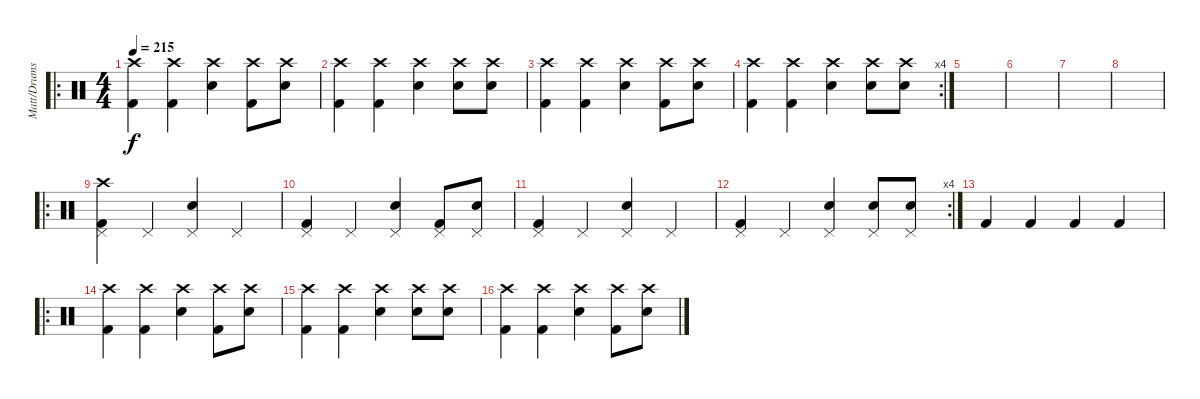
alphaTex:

\track ("Matt/Drums" "Matt/Drums") {instrument percussion}
\staff {score}
\articulation defaults
\ro
\ts (4 4)
\tempo 215
\clef neutral
\ks c
("Crash high (hit)" "Kick (hit) 2").4{dy f} ("Crash high (hit)" "Kick (hit) 2").4 ("Crash high (hit)" "Electric Snare (hit)").4 ("Crash high (hit)" "Kick (hit) 2").8 ("Crash high (hit)" "Electric Snare (hit)").8 |
("Crash high (hit)" "Kick (hit) 2").4 ("Crash high (hit)" "Kick (hit) 2").4 ("Crash high (hit)" "Electric Snare (hit)").4 ("Crash high (hit)" "Electric Snare (hit)").8 ("Crash high (hit)" "Electric Snare (hit)").8 |
("Crash high (hit)" "Kick (hit) 2").4 ("Crash high (hit)" "Kick (hit) 2").4 ("Crash high (hit)" "Electric Snare (hit)").4 ("Crash high (hit)" "Kick (hit) 2").8 ("Crash high (hit)" "Electric Snare (hit)").8 |
\rc 4
("Crash high (hit)" "Kick (hit) 2").4 ("Crash high (hit)" "Kick (hit) 2").4 ("Crash high (hit)" "Electric Snare (hit)").4 ("Crash high (hit)" "Electric Snare (hit)").8 ("Crash high (hit)" "Electric Snare (hit)").8 |
|
|
|
|
\ro
("Crash high (hit)" "Pedal Hi-Hat (hit)" "Kick (hit) 2").4 "Pedal Hi-Hat (hit)".4 ("Pedal Hi-Hat (hit)" "Electric Snare (hit)").4 "Pedal Hi-Hat (hit)".4 |
("Pedal Hi-Hat (hit)" "Kick (hit) 2").4 "Pedal Hi-Hat (hit)".4 ("Pedal Hi-Hat (hit)" "Electric Snare (hit)").4 ("Pedal Hi-Hat (hit)" "Kick (hit) 2").8 ("Pedal Hi-Hat (hit)" "Electric Snare (hit)").8 |
("Pedal Hi-Hat (hit)" "Kick (hit) 2").4 "Pedal Hi-Hat (hit)".4 ("Pedal Hi-Hat (hit)" "Electric Snare (hit)").4 "Pedal Hi-Hat (hit)".4 |
\rc 4
("Pedal Hi-Hat (hit)" "Kick (hit) 2").4 "Pedal Hi-Hat (hit)".4 ("Pedal Hi-Hat (hit)" "Electric Snare (hit)").4 ("Pedal Hi-Hat (hit)" "Electric Snare (hit)").8 ("Pedal Hi-Hat (hit)" "Electric Snare (hit)").8 |
"Kick (hit) 2".4 "Kick (hit) 2".4 "Kick (hit) 2".4 "Kick (hit) 2".4 |
\ro
("Crash high (hit)" "Kick (hit) 2").4 ("Crash high (hit)" "Kick (hit) 2").4 ("Crash high (hit)" "Electric Snare (hit)").4 ("Crash high (hit)" "Kick (hit) 2").8 ("Crash high (hit)" "Electric Snare (hit)").8 |
("Crash high (hit)" "Kick (hit) 2").4 ("Crash high (hit)" "Kick (hit) 2").4 ("Crash high (hit)" "Electric Snare (hit)").4 ("Crash high (hit)" "Electric Snare (hit)").8 ("Crash high (hit)" "Electric Snare (hit)").8 |
("Crash high (hit)" "Kick (hit) 2").4 ("Crash high (hit)" "Kick (hit) 2").4 ("Crash high (hit)" "Electric Snare (hit)").4 ("Crash high (hit)" "Kick (hit) 2").8 ("Crash high (hit)" "Electric Snare (hit)").8
